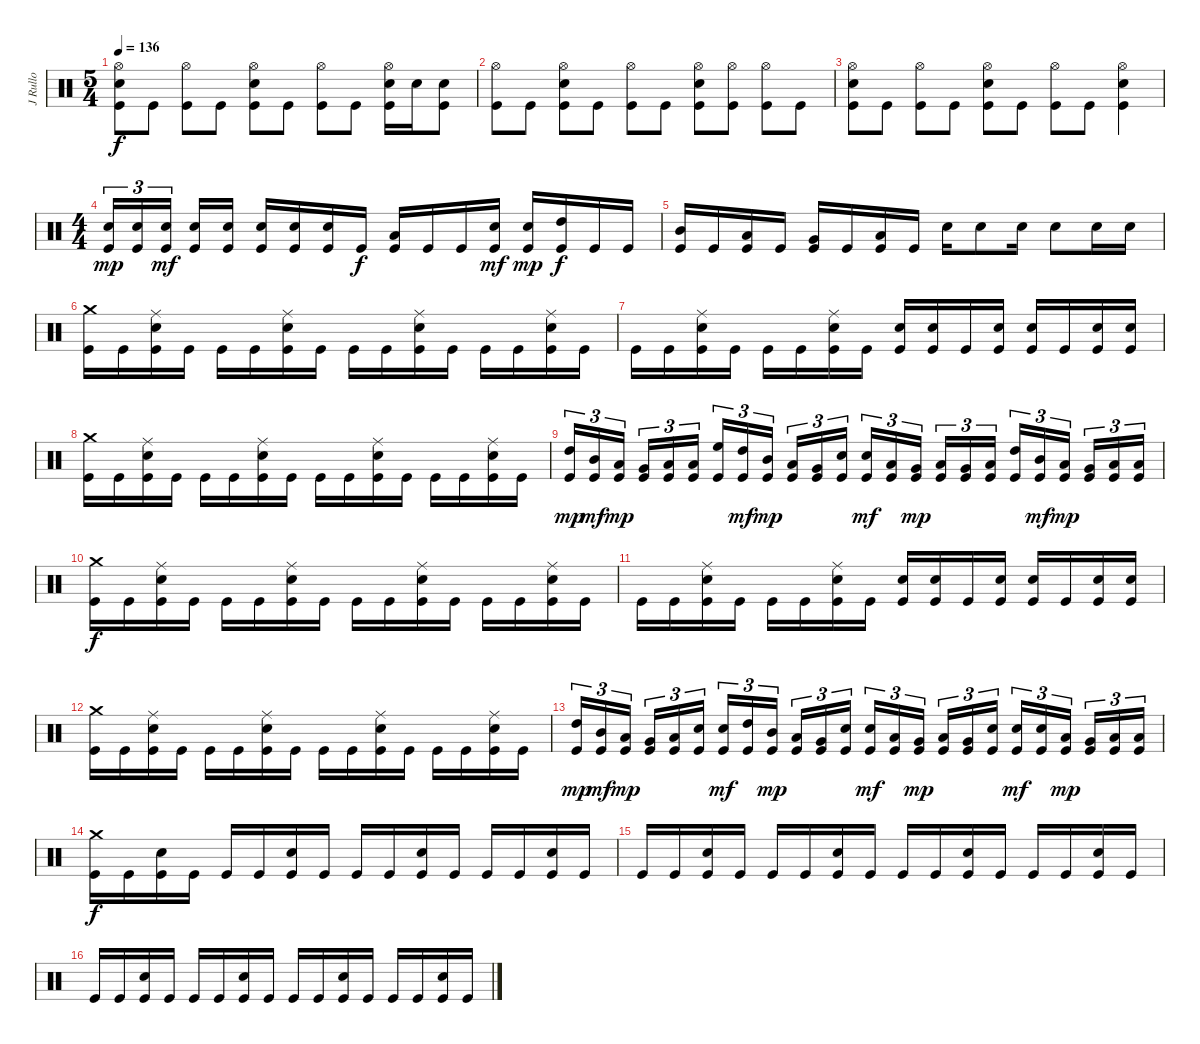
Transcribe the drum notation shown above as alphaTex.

\track ("J Rullo" "J Rullo") {instrument percussion}
\staff {score}
\articulation defaults
\ts (5 4)
\tempo 136
\clef neutral
\ks c
("Hi-Hat (open)" "Electric Snare (hit)" "Kick (hit)").8{dy f} "Kick (hit)".8 ("Hi-Hat (open)" "Kick (hit)").8 "Kick (hit)".8 ("Hi-Hat (open)" "Electric Snare (hit)" "Kick (hit)").8 "Kick (hit)".8 ("Hi-Hat (open)" "Kick (hit)").8 "Kick (hit)".8 ("Hi-Hat (open)" "Electric Snare (hit)" "Kick (hit)").16 "Electric Snare (hit)".16 ("Electric Snare (hit)" "Kick (hit)").8 |
("Hi-Hat (open)" "Kick (hit)").8 "Kick (hit)".8 ("Hi-Hat (open)" "Electric Snare (hit)" "Kick (hit)").8 "Kick (hit)".8 ("Hi-Hat (open)" "Kick (hit)").8 "Kick (hit)".8 ("Hi-Hat (open)" "Electric Snare (hit)" "Kick (hit)").8 ("Hi-Hat (open)" "Kick (hit)").8 ("Hi-Hat (open)" "Kick (hit)").8 "Kick (hit)".8 |
("Hi-Hat (open)" "Electric Snare (hit)" "Kick (hit)").8 "Kick (hit)".8 ("Hi-Hat (open)" "Kick (hit)").8 "Kick (hit)".8 ("Hi-Hat (open)" "Electric Snare (hit)" "Kick (hit)").8 "Kick (hit)".8 ("Hi-Hat (open)" "Kick (hit)").8 "Kick (hit)".8 ("Hi-Hat (open)" "Electric Snare (hit)" "Kick (hit)").4 |
\ts (4 4)
("Electric Snare (hit)" "Kick (hit)").16{tu (3 2) dy mp} ("Electric Snare (hit)" "Kick (hit)").16{tu (3 2)} ("Electric Snare (hit)" "Kick (hit)").16{tu (3 2) dy mf} ("Electric Snare (hit)" "Kick (hit)").16 ("Electric Snare (hit)" "Kick (hit)").16 ("Electric Snare (hit)" "Kick (hit)").16 ("Electric Snare (hit)" "Kick (hit)").16 ("Electric Snare (hit)" "Kick (hit)").16 "Kick (hit)".16{dy f} ("Low Tom (hit)" "Kick (hit)").16 "Kick (hit)".16 "Kick (hit)".16 ("Electric Snare (hit)" "Kick (hit)").16{dy mf} ("Electric Snare (hit)" "Kick (hit)").16{dy mp} ("High Tom (hit)" "Kick (hit)").16{dy f} "Kick (hit)".16 "Kick (hit)".16 |
("Mid Tom (hit)" "Kick (hit)").16 "Kick (hit)".16 ("Low Tom (hit)" "Kick (hit)").16 "Kick (hit)".16 ("Very Low Tom (hit)" "Kick (hit)").16 "Kick (hit)".16 ("Low Floor Tom (hit)" "Kick (hit)").16 "Kick (hit)".16 "Snare (hit) 2".16 "Electric Snare (hit)".8 "Snare (hit) 2".16 "Electric Snare (hit)".8 "Electric Snare (hit)".16 "Snare (hit) 2".16 |
("Crash medium (hit)" "Kick (hit)").16 "Kick (hit)".16 ("Ride (middle)" "Electric Snare (hit)" "Kick (hit)").16 "Kick (hit)".16 "Kick (hit)".16 "Kick (hit)".16 ("Ride (middle)" "Electric Snare (hit)" "Kick (hit)").16 "Kick (hit)".16 "Kick (hit)".16 "Kick (hit)".16 ("Ride (middle)" "Electric Snare (hit)" "Kick (hit)").16 "Kick (hit)".16 "Kick (hit)".16 "Kick (hit)".16 ("Ride (middle)" "Electric Snare (hit)" "Kick (hit)").16 "Kick (hit)".16 |
"Kick (hit)".16 "Kick (hit)".16 ("Ride (middle)" "Electric Snare (hit)" "Kick (hit)").16 "Kick (hit)".16 "Kick (hit)".16 "Kick (hit)".16 ("Ride (middle)" "Electric Snare (hit)" "Kick (hit)").16 "Kick (hit)".16 ("Electric Snare (hit)" "Kick (hit)").16 ("Electric Snare (hit)" "Kick (hit)").16 "Kick (hit)".16 ("Electric Snare (hit)" "Kick (hit)").16 ("Electric Snare (hit)" "Kick (hit)").16 "Kick (hit)".16 ("Electric Snare (hit)" "Kick (hit)").16 ("Electric Snare (hit)" "Kick (hit)").16 |
("Crash medium (hit)" "Kick (hit)").16 "Kick (hit)".16 ("Ride (middle)" "Electric Snare (hit)" "Kick (hit)").16 "Kick (hit)".16 "Kick (hit)".16 "Kick (hit)".16 ("Ride (middle)" "Electric Snare (hit)" "Kick (hit)").16 "Kick (hit)".16 "Kick (hit)".16 "Kick (hit)".16 ("Ride (middle)" "Electric Snare (hit)" "Kick (hit)").16 "Kick (hit)".16 "Kick (hit)".16 "Kick (hit)".16 ("Ride (middle)" "Electric Snare (hit)" "Kick (hit)").16 "Kick (hit)".16 |
("High Tom (hit)" "Kick (hit)").16{tu (3 2) dy mp} ("Mid Tom (hit)" "Kick (hit)").16{tu (3 2) dy mf} ("Low Tom (hit)" "Kick (hit)").16{tu (3 2) dy mp} ("Very Low Tom (hit)" "Kick (hit)").16{tu (3 2)} ("Low Floor Tom (hit)" "Kick (hit)").16{tu (3 2)} ("Low Floor Tom (hit)" "Kick (hit)").16{tu (3 2)} ("High Floor Tom (hit)" "Kick (hit)").16{tu (3 2)} ("High Tom (hit)" "Kick (hit)").16{tu (3 2) dy mf} ("Mid Tom (hit)" "Kick (hit)").16{tu (3 2) dy mp} ("Low Tom (hit)" "Kick (hit)").16{tu (3 2)} ("Very Low Tom (hit)" "Kick (hit)").16{tu (3 2)} ("Electric Snare (hit)" "Kick (hit)").16{tu (3 2)} ("Electric Snare (hit)" "Kick (hit)").16{tu (3 2) dy mf} ("Low Tom (hit)" "Kick (hit)").16{tu (3 2)} ("Very Low Tom (hit)" "Kick (hit)").16{tu (3 2) dy mp} ("Low Tom (hit)" "Kick (hit)").16{tu (3 2)} ("Very Low Tom (hit)" "Kick (hit)").16{tu (3 2)} ("Low Floor Tom (hit)" "Kick (hit)").16{tu (3 2)} ("High Tom (hit)" "Kick (hit)").16{tu (3 2)} ("Mid Tom (hit)" "Kick (hit)").16{tu (3 2) dy mf} ("Low Tom (hit)" "Kick (hit)").16{tu (3 2) dy mp} ("Very Low Tom (hit)" "Kick (hit)").16{tu (3 2)} ("Low Floor Tom (hit)" "Kick (hit)").16{tu (3 2)} ("Low Floor Tom (hit)" "Kick (hit)").16{tu (3 2)} |
("Crash medium (hit)" "Kick (hit)").16{dy f} "Kick (hit)".16 ("Ride (middle)" "Electric Snare (hit)" "Kick (hit)").16 "Kick (hit)".16 "Kick (hit)".16 "Kick (hit)".16 ("Ride (middle)" "Electric Snare (hit)" "Kick (hit)").16 "Kick (hit)".16 "Kick (hit)".16 "Kick (hit)".16 ("Ride (middle)" "Electric Snare (hit)" "Kick (hit)").16 "Kick (hit)".16 "Kick (hit)".16 "Kick (hit)".16 ("Ride (middle)" "Electric Snare (hit)" "Kick (hit)").16 "Kick (hit)".16 |
"Kick (hit)".16 "Kick (hit)".16 ("Ride (middle)" "Electric Snare (hit)" "Kick (hit)").16 "Kick (hit)".16 "Kick (hit)".16 "Kick (hit)".16 ("Ride (middle)" "Electric Snare (hit)" "Kick (hit)").16 "Kick (hit)".16 ("Electric Snare (hit)" "Kick (hit)").16 ("Electric Snare (hit)" "Kick (hit)").16 "Kick (hit)".16 ("Electric Snare (hit)" "Kick (hit)").16 ("Electric Snare (hit)" "Kick (hit)").16 "Kick (hit)".16 ("Electric Snare (hit)" "Kick (hit)").16 ("Electric Snare (hit)" "Kick (hit)").16 |
("Crash medium (hit)" "Kick (hit)").16 "Kick (hit)".16 ("Ride (middle)" "Electric Snare (hit)" "Kick (hit)").16 "Kick (hit)".16 "Kick (hit)".16 "Kick (hit)".16 ("Ride (middle)" "Electric Snare (hit)" "Kick (hit)").16 "Kick (hit)".16 "Kick (hit)".16 "Kick (hit)".16 ("Ride (middle)" "Electric Snare (hit)" "Kick (hit)").16 "Kick (hit)".16 "Kick (hit)".16 "Kick (hit)".16 ("Ride (middle)" "Electric Snare (hit)" "Kick (hit)").16 "Kick (hit)".16 |
("High Tom (hit)" "Kick (hit)").16{tu (3 2) dy mp} ("Mid Tom (hit)" "Kick (hit)").16{tu (3 2) dy mf} ("Low Tom (hit)" "Kick (hit)").16{tu (3 2) dy mp} ("Very Low Tom (hit)" "Kick (hit)").16{tu (3 2)} ("Low Floor Tom (hit)" "Kick (hit)").16{tu (3 2)} ("Electric Snare (hit)" "Kick (hit)").16{tu (3 2)} ("Electric Snare (hit)" "Kick (hit)").16{tu (3 2) dy mf} ("High Tom (hit)" "Kick (hit)").16{tu (3 2)} ("Mid Tom (hit)" "Kick (hit)").16{tu (3 2) dy mp} ("Low Tom (hit)" "Kick (hit)").16{tu (3 2)} ("Very Low Tom (hit)" "Kick (hit)").16{tu (3 2)} ("Electric Snare (hit)" "Kick (hit)").16{tu (3 2)} ("Electric Snare (hit)" "Kick (hit)").16{tu (3 2) dy mf} ("Low Tom (hit)" "Kick (hit)").16{tu (3 2)} ("Very Low Tom (hit)" "Kick (hit)").16{tu (3 2) dy mp} ("Low Tom (hit)" "Kick (hit)").16{tu (3 2)} ("Very Low Tom (hit)" "Kick (hit)").16{tu (3 2)} ("Electric Snare (hit)" "Kick (hit)").16{tu (3 2)} ("Electric Snare (hit)" "Kick (hit)").16{tu (3 2) dy mf} ("Electric Snare (hit)" "Kick (hit)").16{tu (3 2)} ("Low Tom (hit)" "Kick (hit)").16{tu (3 2) dy mp} ("Very Low Tom (hit)" "Kick (hit)").16{tu (3 2)} ("Low Floor Tom (hit)" "Kick (hit)").16{tu (3 2)} ("Low Floor Tom (hit)" "Kick (hit)").16{tu (3 2)} |
("Crash medium (hit)" "Kick (hit)").16{dy f} "Kick (hit)".16 ("Electric Snare (hit)" "Kick (hit)").16 "Kick (hit)".16 "Kick (hit)".16 "Kick (hit)".16 ("Electric Snare (hit)" "Kick (hit)").16 "Kick (hit)".16 "Kick (hit)".16 "Kick (hit)".16 ("Electric Snare (hit)" "Kick (hit)").16 "Kick (hit)".16 "Kick (hit)".16 "Kick (hit)".16 ("Electric Snare (hit)" "Kick (hit)").16 "Kick (hit)".16 |
"Kick (hit)".16 "Kick (hit)".16 ("Electric Snare (hit)" "Kick (hit)").16 "Kick (hit)".16 "Kick (hit)".16 "Kick (hit)".16 ("Electric Snare (hit)" "Kick (hit)").16 "Kick (hit)".16 "Kick (hit)".16 "Kick (hit)".16 ("Electric Snare (hit)" "Kick (hit)").16 "Kick (hit)".16 "Kick (hit)".16 "Kick (hit)".16 ("Electric Snare (hit)" "Kick (hit)").16 "Kick (hit)".16 |
"Kick (hit)".16 "Kick (hit)".16 ("Electric Snare (hit)" "Kick (hit)").16 "Kick (hit)".16 "Kick (hit)".16 "Kick (hit)".16 ("Electric Snare (hit)" "Kick (hit)").16 "Kick (hit)".16 "Kick (hit)".16 "Kick (hit)".16 ("Electric Snare (hit)" "Kick (hit)").16 "Kick (hit)".16 "Kick (hit)".16 "Kick (hit)".16 ("Electric Snare (hit)" "Kick (hit)").16 "Kick (hit)".16
